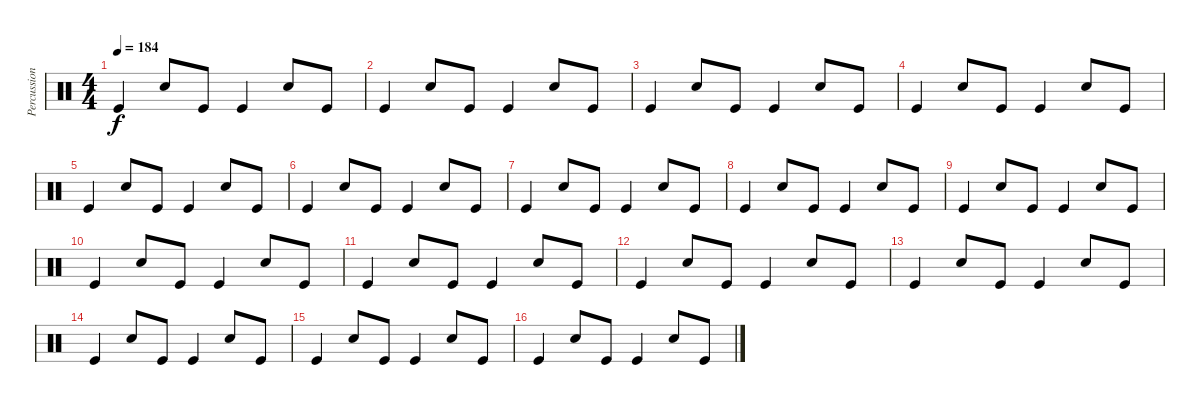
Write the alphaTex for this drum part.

\track ("Percussion" "Percussion") {instrument percussion}
\staff {score}
\articulation defaults
\ts (4 4)
\tempo 184
\clef neutral
\ks c "Kick (hit)".4{dy f} "Snare (hit) 2".8 "Kick (hit)".8 "Kick (hit)".4 "Snare (hit) 2".8 "Kick (hit)".8
|
"Kick (hit)".4 "Snare (hit) 2".8 "Kick (hit)".8 "Kick (hit)".4 "Snare (hit) 2".8 "Kick (hit)".8 |
"Kick (hit)".4 "Snare (hit) 2".8 "Kick (hit)".8 "Kick (hit)".4 "Snare (hit) 2".8 "Kick (hit)".8 |
"Kick (hit)".4 "Snare (hit) 2".8 "Kick (hit)".8 "Kick (hit)".4 "Snare (hit) 2".8 "Kick (hit)".8 |
"Kick (hit)".4 "Snare (hit) 2".8 "Kick (hit)".8 "Kick (hit)".4 "Snare (hit) 2".8 "Kick (hit)".8 |
"Kick (hit)".4 "Snare (hit) 2".8 "Kick (hit)".8 "Kick (hit)".4 "Snare (hit) 2".8 "Kick (hit)".8 |
"Kick (hit)".4 "Snare (hit) 2".8 "Kick (hit)".8 "Kick (hit)".4 "Snare (hit) 2".8 "Kick (hit)".8 |
"Kick (hit)".4 "Snare (hit) 2".8 "Kick (hit)".8 "Kick (hit)".4 "Snare (hit) 2".8 "Kick (hit)".8 |
"Kick (hit)".4 "Snare (hit) 2".8 "Kick (hit)".8 "Kick (hit)".4 "Snare (hit) 2".8 "Kick (hit)".8 |
"Kick (hit)".4 "Snare (hit) 2".8 "Kick (hit)".8 "Kick (hit)".4 "Snare (hit) 2".8 "Kick (hit)".8 |
"Kick (hit)".4 "Snare (hit) 2".8 "Kick (hit)".8 "Kick (hit)".4 "Snare (hit) 2".8 "Kick (hit)".8 |
"Kick (hit)".4 "Snare (hit) 2".8 "Kick (hit)".8 "Kick (hit)".4 "Snare (hit) 2".8 "Kick (hit)".8 |
"Kick (hit)".4 "Snare (hit) 2".8 "Kick (hit)".8 "Kick (hit)".4 "Snare (hit) 2".8 "Kick (hit)".8 |
"Kick (hit)".4 "Snare (hit) 2".8 "Kick (hit)".8 "Kick (hit)".4 "Snare (hit) 2".8 "Kick (hit)".8 |
"Kick (hit)".4 "Snare (hit) 2".8 "Kick (hit)".8 "Kick (hit)".4 "Snare (hit) 2".8 "Kick (hit)".8 |
"Kick (hit)".4 "Snare (hit) 2".8 "Kick (hit)".8 "Kick (hit)".4 "Snare (hit) 2".8 "Kick (hit)".8
